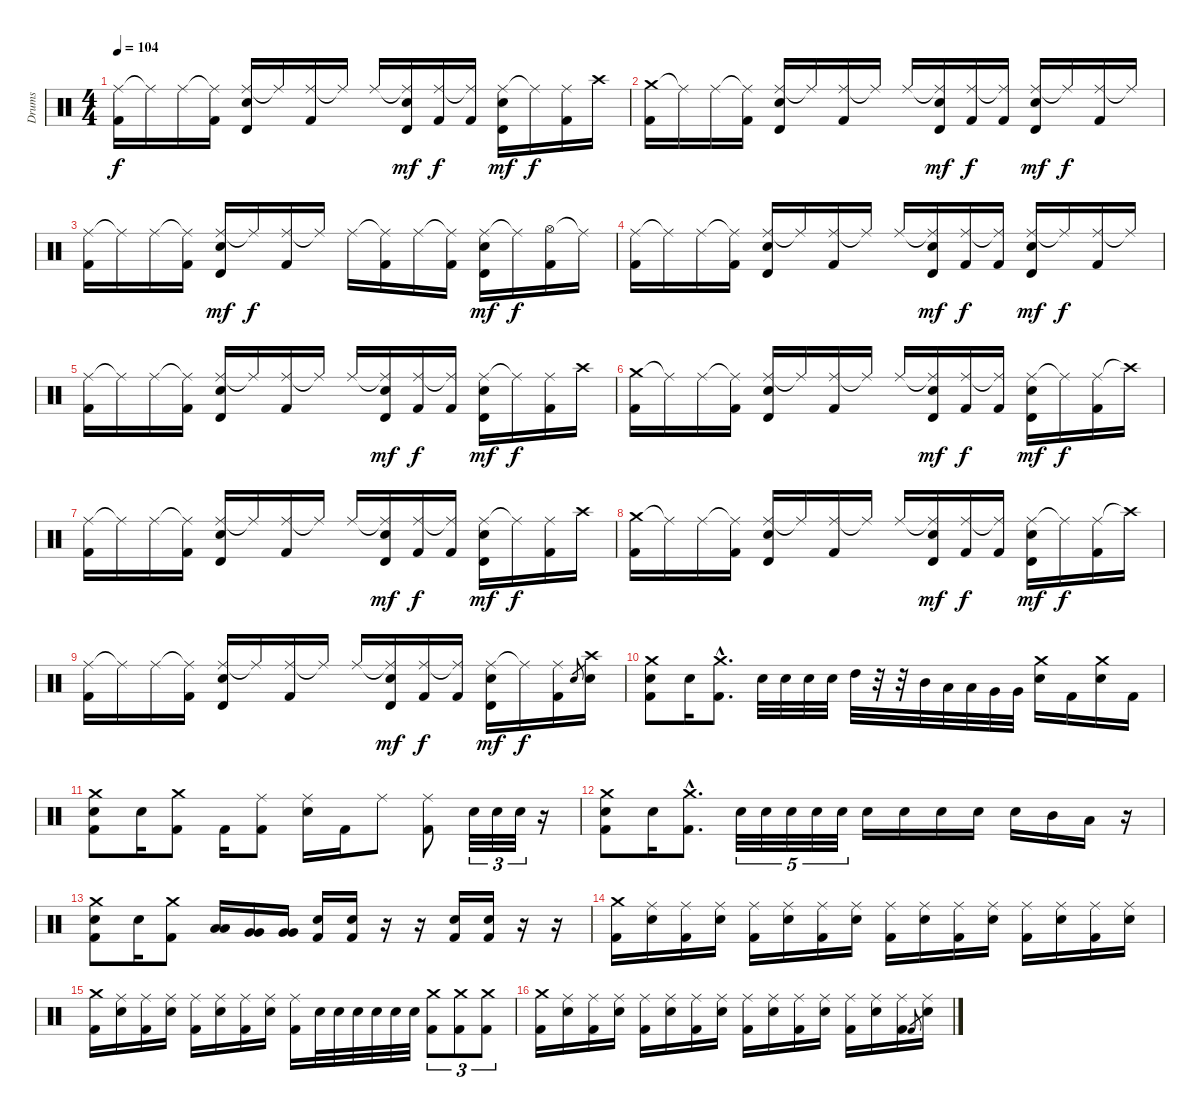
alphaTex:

\track ("Drums" "Drums") {instrument percussion}
\staff {score}
\articulation defaults
\ts (4 4)
\tempo 104
\clef neutral
\ks c
("Ride (middle)" "Kick (hit) 2").16{dy f} "Ride (middle)"{t}.16 "Ride (middle)".16 ("Ride (middle)"{t} "Kick (hit) 2").16 ("Ride (middle)" "Electric Snare (hit)" "Timbale high (hit)").16 "Ride (middle)"{t}.16 ("Ride (middle)" "Kick (hit) 2").16 "Ride (middle)"{t}.16 "Ride (middle)".16 ("Ride (middle)"{t} "Electric Snare (hit)" "Timbale high (hit)").16{dy mf} ("Ride (middle)" "Kick (hit) 2").16{dy f} ("Ride (middle)"{t} "Kick (hit) 2").16 ("Ride (middle)" "Electric Snare (hit)" "Timbale high (hit)").16{dy mf} "Ride (middle)"{t}.16{dy f} ("Ride (middle)" "Kick (hit) 2").16 "Crash high (hit)".16 |
("Crash medium (hit)" "Kick (hit) 2").16 "Ride (middle)"{t}.16 "Ride (middle)".16 ("Ride (middle)"{t} "Kick (hit) 2").16 ("Ride (middle)" "Electric Snare (hit)" "Timbale high (hit)").16 "Ride (middle)"{t}.16 ("Ride (middle)" "Kick (hit) 2").16 "Ride (middle)"{t}.16 "Ride (middle)".16 ("Ride (middle)"{t} "Electric Snare (hit)" "Timbale high (hit)").16{dy mf} ("Ride (middle)" "Kick (hit) 2").16{dy f} ("Ride (middle)"{t} "Kick (hit) 2").16 ("Ride (middle)" "Electric Snare (hit)" "Timbale high (hit)").16{dy mf} "Ride (middle)"{t}.16{dy f} ("Ride (middle)" "Kick (hit) 2").16 "Ride (middle)"{t}.16 |
("Ride (middle)" "Kick (hit) 2").16 "Ride (middle)"{t}.16 "Ride (middle)".16 ("Ride (middle)"{t} "Kick (hit) 2").16 ("Ride (middle)" "Electric Snare (hit)" "Timbale high (hit)").16{dy mf} "Ride (middle)"{t}.16{dy f} ("Ride (middle)" "Kick (hit) 2").16 "Ride (middle)"{t}.16 "Ride (middle)".16 ("Ride (middle)"{t} "Kick (hit) 2").16 "Ride (middle)".16 ("Ride (middle)"{t} "Kick (hit) 2").16 ("Ride (middle)" "Electric Snare (hit)" "Timbale high (hit)").16{dy mf} "Ride (middle)"{t}.16{dy f} ("Hi-Hat (open)" "Kick (hit) 2").16 "Ride (middle)"{t}.16 |
("Ride (middle)" "Kick (hit) 2").16 "Ride (middle)"{t}.16 "Ride (middle)".16 ("Ride (middle)"{t} "Kick (hit) 2").16 ("Ride (middle)" "Electric Snare (hit)" "Timbale high (hit)").16 "Ride (middle)"{t}.16 ("Ride (middle)" "Kick (hit) 2").16 "Ride (middle)"{t}.16 "Ride (middle)".16 ("Ride (middle)"{t} "Electric Snare (hit)" "Timbale high (hit)").16{dy mf} ("Ride (middle)" "Kick (hit) 2").16{dy f} ("Ride (middle)"{t} "Kick (hit) 2").16 ("Ride (middle)" "Electric Snare (hit)" "Timbale high (hit)").16{dy mf} "Ride (middle)"{t}.16{dy f} ("Ride (middle)" "Kick (hit) 2").16 "Ride (middle)"{t}.16 |
("Ride (middle)" "Kick (hit) 2").16 "Ride (middle)"{t}.16 "Ride (middle)".16 ("Ride (middle)"{t} "Kick (hit) 2").16 ("Ride (middle)" "Electric Snare (hit)" "Timbale high (hit)").16 "Ride (middle)"{t}.16 ("Ride (middle)" "Kick (hit) 2").16 "Ride (middle)"{t}.16 "Ride (middle)".16 ("Ride (middle)"{t} "Electric Snare (hit)" "Timbale high (hit)").16{dy mf} ("Ride (middle)" "Kick (hit) 2").16{dy f} ("Ride (middle)"{t} "Kick (hit) 2").16 ("Ride (middle)" "Electric Snare (hit)" "Timbale high (hit)").16{dy mf} "Ride (middle)"{t}.16{dy f} ("Ride (middle)" "Kick (hit) 2").16 "Crash high (hit)".16 |
("Crash medium (hit)" "Kick (hit) 2").16 "Ride (middle)"{t}.16 "Ride (middle)".16 ("Ride (middle)"{t} "Kick (hit) 2").16 ("Ride (middle)" "Electric Snare (hit)" "Timbale high (hit)").16 "Ride (middle)"{t}.16 ("Ride (middle)" "Kick (hit) 2").16 "Ride (middle)"{t}.16 "Ride (middle)".16 ("Ride (middle)"{t} "Electric Snare (hit)" "Timbale high (hit)").16{dy mf} ("Ride (middle)" "Kick (hit) 2").16{dy f} ("Ride (middle)"{t} "Kick (hit) 2").16 ("Ride (middle)" "Electric Snare (hit)" "Timbale high (hit)").16{dy mf} "Ride (middle)"{t}.16{dy f} ("Ride (middle)" "Kick (hit) 2").16 "Crash high (hit)"{t}.16 |
("Ride (middle)" "Kick (hit) 2").16 "Ride (middle)"{t}.16 "Ride (middle)".16 ("Ride (middle)"{t} "Kick (hit) 2").16 ("Ride (middle)" "Electric Snare (hit)" "Timbale high (hit)").16 "Ride (middle)"{t}.16 ("Ride (middle)" "Kick (hit) 2").16 "Ride (middle)"{t}.16 "Ride (middle)".16 ("Ride (middle)"{t} "Electric Snare (hit)" "Timbale high (hit)").16{dy mf} ("Ride (middle)" "Kick (hit) 2").16{dy f} ("Ride (middle)"{t} "Kick (hit) 2").16 ("Ride (middle)" "Electric Snare (hit)" "Timbale high (hit)").16{dy mf} "Ride (middle)"{t}.16{dy f} ("Ride (middle)" "Kick (hit) 2").16 "Crash high (hit)".16 |
("Crash medium (hit)" "Kick (hit) 2").16 "Ride (middle)"{t}.16 "Ride (middle)".16 ("Ride (middle)"{t} "Kick (hit) 2").16 ("Ride (middle)" "Electric Snare (hit)" "Timbale high (hit)").16 "Ride (middle)"{t}.16 ("Ride (middle)" "Kick (hit) 2").16 "Ride (middle)"{t}.16 "Ride (middle)".16 ("Ride (middle)"{t} "Electric Snare (hit)" "Timbale high (hit)").16{dy mf} ("Ride (middle)" "Kick (hit) 2").16{dy f} ("Ride (middle)"{t} "Kick (hit) 2").16 ("Ride (middle)" "Electric Snare (hit)" "Timbale high (hit)").16{dy mf} "Ride (middle)"{t}.16{dy f} ("Ride (middle)" "Kick (hit) 2").16 "Crash high (hit)"{t}.16 |
("Ride (middle)" "Kick (hit) 2").16 "Ride (middle)"{t}.16 "Ride (middle)".16 ("Ride (middle)"{t} "Kick (hit) 2").16 ("Ride (middle)" "Electric Snare (hit)" "Timbale high (hit)").16 "Ride (middle)"{t}.16 ("Ride (middle)" "Kick (hit) 2").16 "Ride (middle)"{t}.16 "Ride (middle)".16 ("Ride (middle)"{t} "Electric Snare (hit)" "Timbale high (hit)").16{dy mf} ("Ride (middle)" "Kick (hit) 2").16{dy f} ("Ride (middle)"{t} "Kick (hit) 2").16 ("Ride (middle)" "Electric Snare (hit)" "Timbale high (hit)").16{dy mf} "Ride (middle)"{t}.16{dy f} ("Ride (middle)" "Kick (hit) 2").16 "Electric Snare (hit)".8{gr} ("Crash high (hit)" "Electric Snare (hit)").16 |
("Crash medium (hit)" "Electric Snare (hit)" "Kick (hit) 2").8 "Electric Snare (hit)".16 ("Crash medium (hit)"{hac} "Kick (hit) 2"{hac}).8{d} "Electric Snare (hit)".32 "Electric Snare (hit)".32 "Electric Snare (hit)".32 "Electric Snare (hit)".32 "High Tom (hit)".32 r.32 r.32 "Mid Tom (hit)".32 "Low Tom (hit)".32 "Low Tom (hit)".32 "Very Low Tom (hit)".32 "Very Low Tom (hit)".32 ("Crash medium (hit)" "Electric Snare (hit)").16 "Kick (hit) 2".16 ("Crash medium (hit)" "Electric Snare (hit)").16 "Kick (hit) 2".16 |
("Crash medium (hit)" "Electric Snare (hit)" "Kick (hit) 2").8 "Electric Snare (hit)".16 ("Crash medium (hit)" "Kick (hit) 2").8 "Kick (hit) 2".16 ("Ride (middle)" "Kick (hit) 2").8 ("Ride (middle)" "Electric Snare (hit)").16 "Kick (hit) 2".16 "Ride (middle)".8 ("Ride (middle)" "Kick (hit) 2").8 "Electric Snare (hit)".32{tu (3 2)} "Electric Snare (hit)".32{tu (3 2)} "Electric Snare (hit)".32{tu (3 2)} r.16 |
("Crash medium (hit)" "Electric Snare (hit)" "Kick (hit) 2").8 "Electric Snare (hit)".16 ("Crash medium (hit)"{hac} "Kick (hit) 2"{hac}).8{d} "Electric Snare (hit)".32{tu (5 4)} "Electric Snare (hit)".32{tu (5 4)} "Electric Snare (hit)".32{tu (5 4)} "Electric Snare (hit)".32{tu (5 4)} "Electric Snare (hit)".32{tu (5 4)} "Electric Snare (hit)".16 "Electric Snare (hit)".16 "Electric Snare (hit)".16 "Electric Snare (hit)".16 "Electric Snare (hit)".16 "Mid Tom (hit)".16 "Low Tom (hit)".16 r.16 |
("Crash medium (hit)" "Electric Snare (hit)" "Kick (hit) 2").8 "Electric Snare (hit)".16 ("Crash medium (hit)" "Kick (hit) 2").8 ("Low Tom (hit)" "Low Tom (hit)").16 ("Very Low Tom (hit)" "Very Low Tom (hit)").16 ("Very Low Tom (hit)" "Very Low Tom (hit)").16 ("Electric Snare (hit)" "Kick (hit) 2").16 ("Electric Snare (hit)" "Kick (hit) 2").16 r.16 r.16 ("Electric Snare (hit)" "Kick (hit) 2").16 ("Electric Snare (hit)" "Kick (hit) 2").16 r.16 r.16 |
("Crash medium (hit)" "Kick (hit) 2").16 ("Ride (middle)" "Electric Snare (hit)").16 ("Ride (middle)" "Kick (hit) 2").16 ("Ride (middle)" "Electric Snare (hit)").16 ("Ride (middle)" "Kick (hit) 2").16 ("Ride (middle)" "Electric Snare (hit)").16 ("Ride (middle)" "Kick (hit) 2").16 ("Ride (middle)" "Electric Snare (hit)").16 ("Ride (middle)" "Kick (hit) 2").16 ("Ride (middle)" "Electric Snare (hit)").16 ("Ride (middle)" "Kick (hit) 2").16 ("Ride (middle)" "Electric Snare (hit)").16 ("Ride (middle)" "Kick (hit) 2").16 ("Ride (middle)" "Electric Snare (hit)").16 ("Ride (middle)" "Kick (hit) 2").16 ("Ride (middle)" "Electric Snare (hit)").16 |
("Crash medium (hit)" "Kick (hit) 2").16 ("Ride (middle)" "Electric Snare (hit)").16 ("Ride (middle)" "Kick (hit) 2").16 ("Ride (middle)" "Electric Snare (hit)").16 ("Ride (middle)" "Kick (hit) 2").16 ("Ride (middle)" "Electric Snare (hit)").16 ("Ride (middle)" "Kick (hit) 2").16 ("Ride (middle)" "Electric Snare (hit)").16 ("Ride (middle)" "Kick (hit) 2").16 "Electric Snare (hit)".32 "Electric Snare (hit)".32 "Electric Snare (hit)".32 "Electric Snare (hit)".32 "Electric Snare (hit)".32 "Electric Snare (hit)".32 ("Crash medium (hit)" "Kick (hit) 2").8{tu (3 2)} ("Crash medium (hit)" "Kick (hit) 2").8{tu (3 2)} ("Crash medium (hit)" "Kick (hit) 2").8{tu (3 2)} |
("Crash medium (hit)" "Kick (hit) 2").16 ("Ride (middle)" "Electric Snare (hit)").16 ("Ride (middle)" "Kick (hit) 2").16 ("Ride (middle)" "Electric Snare (hit)").16 ("Ride (middle)" "Kick (hit) 2").16 ("Ride (middle)" "Electric Snare (hit)").16 ("Ride (middle)" "Kick (hit) 2").16 ("Ride (middle)" "Electric Snare (hit)").16 ("Ride (middle)" "Kick (hit) 2").16 ("Ride (middle)" "Electric Snare (hit)").16 ("Ride (middle)" "Kick (hit) 2").16 ("Ride (middle)" "Electric Snare (hit)").16 ("Ride (middle)" "Kick (hit) 2").16 ("Ride (middle)" "Electric Snare (hit)").16 ("Ride (middle)" "Kick (hit) 2").16 "Kick (hit) 2".8{gr} ("Ride (middle)" "Electric Snare (hit)").16
